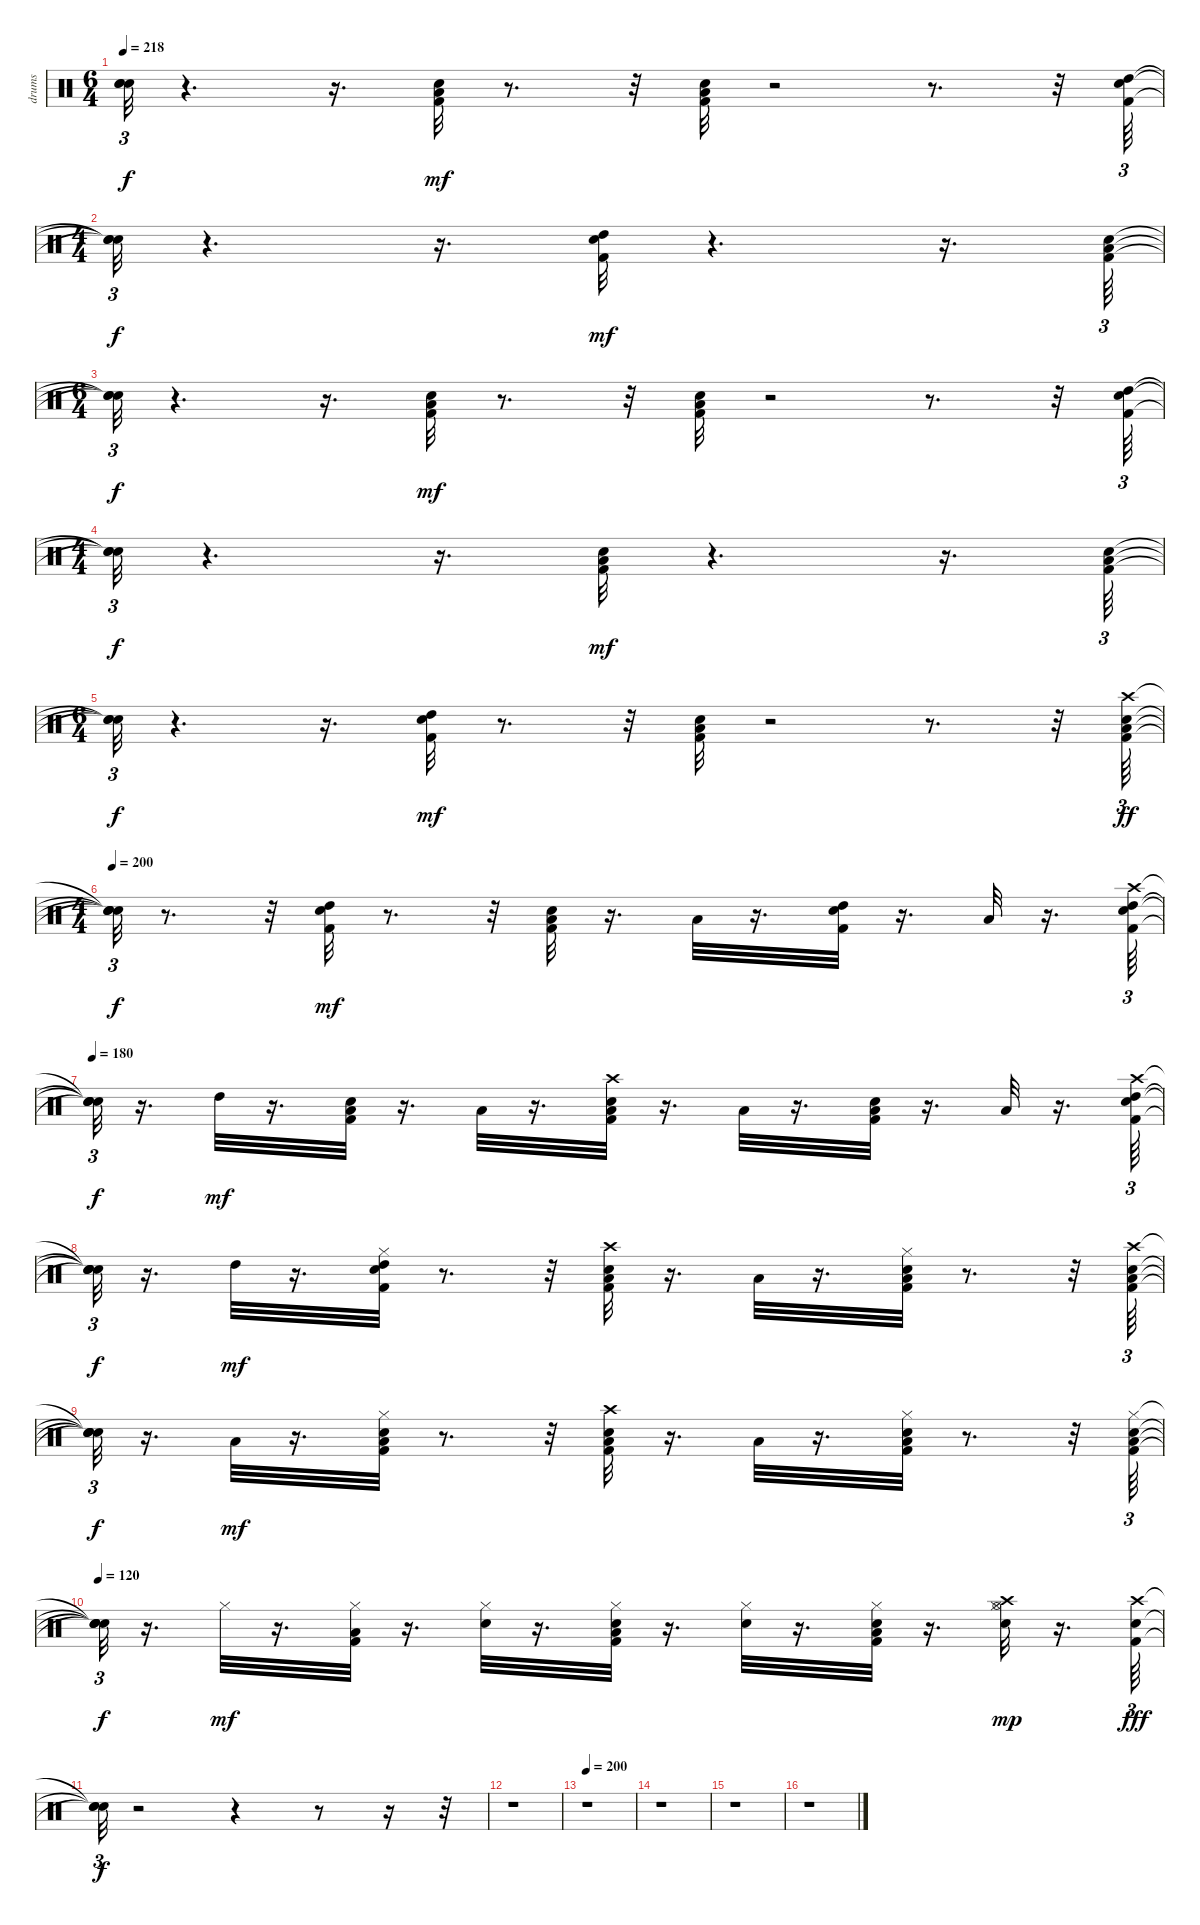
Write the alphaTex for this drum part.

\track ("drums               " "drums     ") {instrument percussion}
\staff {score}
\articulation defaults
\ts (6 4)
\tempo 218
\clef neutral
\ks c
("Snare (hit)"{t} "Snare (hit)"{t} "Snare (hit)"{t}).32{tu (3 2) dy f} r.4{d} r.16{d} ("Kick (hit) 2" "Snare (hit) 2" "Low Tom (hit)").32{dy mf} r.8{d} r.32 ("Kick (hit) 2" "Snare (hit) 2" "Low Floor Tom (hit)").32 r.2 r.8{d} r.32 ("Kick (hit) 2" "Snare (hit) 2" "High Tom (hit)").64{tu (3 2)} |
\ts (4 4)
("Snare (hit)"{t} "Snare (hit)"{t} "Snare (hit)"{t}).32{tu (3 2) dy f} r.4{d} r.16{d} ("Kick (hit) 2" "Snare (hit) 2" "High Tom (hit)").32{dy mf} r.4{d} r.16{d} ("Kick (hit) 2" "Snare (hit) 2" "Low Tom (hit)").64{tu (3 2)} |
\ts (6 4)
("Snare (hit)"{t} "Snare (hit)"{t} "Snare (hit)"{t}).32{tu (3 2) dy f} r.4{d} r.16{d} ("Kick (hit) 2" "Snare (hit) 2" "Low Tom (hit)").32{dy mf} r.8{d} r.32 ("Kick (hit) 2" "Snare (hit) 2" "Low Floor Tom (hit)").32 r.2 r.8{d} r.32 ("Kick (hit) 2" "Snare (hit) 2" "High Tom (hit)").64{tu (3 2)} |
\ts (4 4)
("Snare (hit)"{t} "Snare (hit)"{t} "Snare (hit)"{t}).32{tu (3 2) dy f} r.4{d} r.16{d} ("Kick (hit) 2" "Snare (hit) 2" "Low Floor Tom (hit)").32{dy mf} r.4{d} r.16{d} ("Kick (hit) 2" "Snare (hit) 2" "Low Tom (hit)").64{tu (3 2)} |
\ts (6 4)
("Snare (hit)"{t} "Snare (hit)"{t} "Snare (hit)"{t}).32{tu (3 2) dy f} r.4{d} r.16{d} ("Kick (hit) 2" "Snare (hit) 2" "High Tom (hit)").32{dy mf} r.8{d} r.32 ("Kick (hit) 2" "Snare (hit) 2" "Low Floor Tom (hit)").32 r.2 r.8{d} r.32 ("Kick (hit) 2" "Snare (hit) 2" "Low Floor Tom (hit)" "Crash high (hit)").64{tu (3 2) dy ff} |
\ts (4 4)
\tempo 200
("Snare (hit)"{t} "Snare (hit)"{t} "Snare (hit)"{t} "Snare (hit)"{t}).32{tu (3 2) dy f} r.8{d} r.32 ("Kick (hit) 2" "Snare (hit) 2" "High Tom (hit)").32{dy mf} r.8{d} r.32 ("Kick (hit) 2" "Snare (hit) 2" "Low Floor Tom (hit)").32 r.16{d} "Low Tom (hit)".32 r.16{d} ("Snare (hit) 2" "Kick (hit) 2" "High Tom (hit)").32 r.16{d} "Low Floor Tom (hit)".32 r.16{d} ("Kick (hit) 2" "Snare (hit) 2" "High Tom (hit)" "Crash high (hit)").64{tu (3 2)} |
\tempo 180
("Snare (hit)"{t} "Snare (hit)"{t} "Snare (hit)"{t} "Snare (hit)"{t}).32{tu (3 2) dy f} r.16{d} "High Tom (hit)".32{dy mf} r.16{d} ("Kick (hit) 2" "Snare (hit) 2" "Low Tom (hit)").32 r.16{d} "Low Tom (hit)".32 r.16{d} ("Kick (hit) 2" "Snare (hit) 2" "Low Floor Tom (hit)" "Crash high (hit)").32 r.16{d} "Low Floor Tom (hit)".32 r.16{d} ("Kick (hit) 2" "Snare (hit) 2" "Low Floor Tom (hit)").32 r.16{d} "Low Floor Tom (hit)".32 r.16{d} ("Kick (hit) 2" "Snare (hit) 2" "High Tom (hit)" "Crash high (hit)").64{tu (3 2)} |
("Snare (hit)"{t} "Snare (hit)"{t} "Snare (hit)"{t} "Snare (hit)"{t}).32{tu (3 2) dy f} r.16{d} "High Tom (hit)".32{dy mf} r.16{d} ("Kick (hit) 2" "Snare (hit) 2" "Hi-Hat (closed)" "High Tom (hit)").32 r.8{d} r.32 ("Kick (hit) 2" "Snare (hit) 2" "Low Tom (hit)" "Crash high (hit)").32 r.16{d} "Low Tom (hit)".32 r.16{d} ("Kick (hit) 2" "Snare (hit) 2" "Hi-Hat (closed)" "Low Tom (hit)").32 r.8{d} r.32 ("Kick (hit) 2" "Snare (hit) 2" "Low Floor Tom (hit)" "Crash high (hit)").64{tu (3 2)} |
("Snare (hit)"{t} "Snare (hit)"{t} "Snare (hit)"{t} "Snare (hit)"{t}).32{tu (3 2) dy f} r.16{d} "Low Floor Tom (hit)".32{dy mf} r.16{d} ("Kick (hit) 2" "Snare (hit) 2" "Low Floor Tom (hit)" "Hi-Hat (closed)").32 r.8{d} r.32 ("Kick (hit) 2" "Snare (hit) 2" "Low Tom (hit)" "Crash high (hit)").32 r.16{d} "Low Tom (hit)".32 r.16{d} ("Kick (hit) 2" "Snare (hit) 2" "Hi-Hat (closed)" "Low Tom (hit)").32 r.8{d} r.32 ("Kick (hit) 2" "Snare (hit) 2" "Low Tom (hit)" "Hi-Hat (closed)").64{tu (3 2)} |
\tempo 120
("Snare (hit)"{t} "Snare (hit)"{t} "Snare (hit)"{t} "Snare (hit)"{t}).32{tu (3 2) dy f} r.16{d} "Hi-Hat (closed)".32{dy mf} r.16{d} ("Low Tom (hit)" "Kick (hit) 2" "Hi-Hat (closed)").32 r.16{d} ("Snare (hit) 2" "Hi-Hat (closed)").32 r.16{d} ("Kick (hit) 2" "Snare (hit) 2" "Low Tom (hit)" "Hi-Hat (closed)").32 r.16{d} ("Snare (hit) 2" "Hi-Hat (closed)").32 r.16{d} ("Low Tom (hit)" "Snare (hit) 2" "Kick (hit) 2" "Hi-Hat (closed)").32 r.16{d} ("Snare (hit) 2" "Hi-Hat (closed)" "Hi-Hat (open)" "Crash high (hit)").32{dy mp} r.16{d} ("Kick (hit) 2" "Snare (hit) 2" "Crash high (hit)").64{tu (3 2) dy fff} |
("Snare (hit)"{t} "Snare (hit)"{t} "Snare (hit)"{t}).32{tu (3 2) dy f} r.2 r.4 r.8 r.16 r.32 |
r.1 |
\tempo 200
r.1 |
r.1 |
r.1 |
r.1
